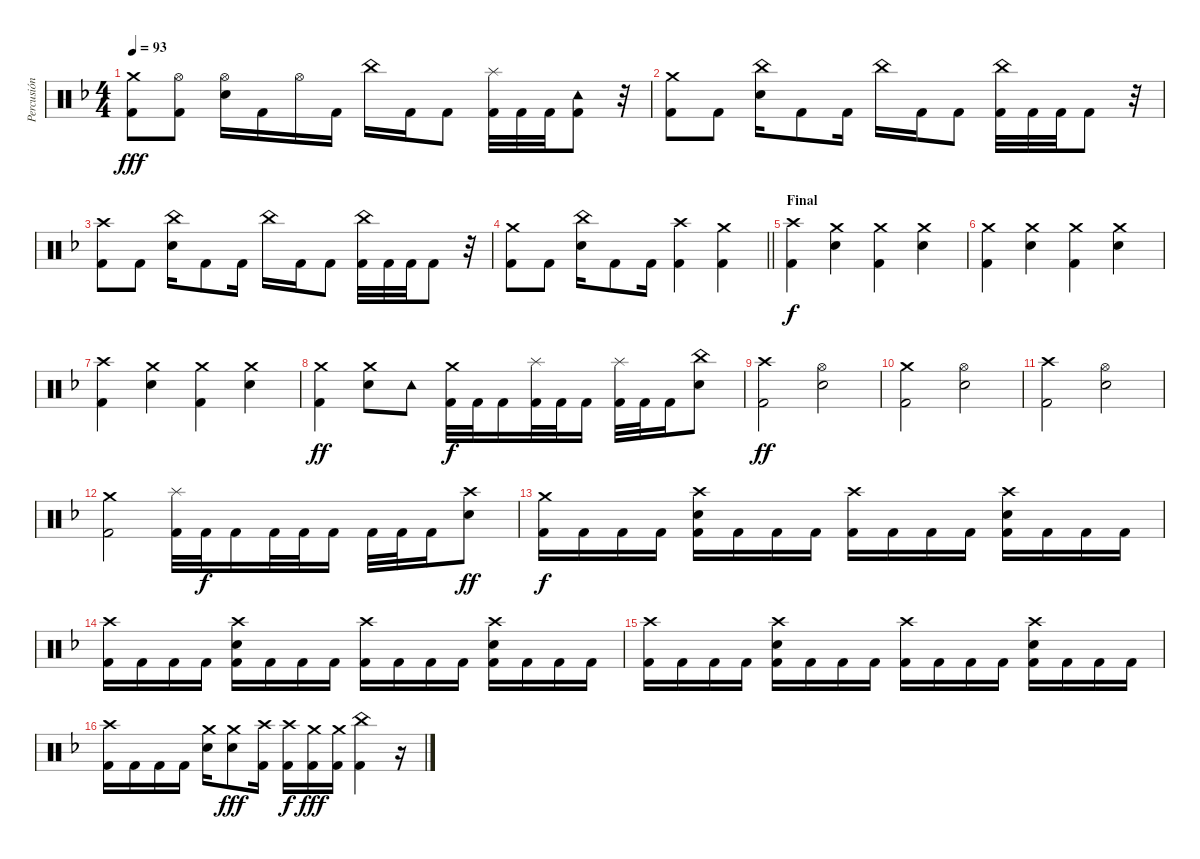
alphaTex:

\track ("Percusión" "Percusión") {instrument percussion}
\staff {score}
\articulation defaults
\ts (4 4)
\tempo 93
\clef neutral
\ks dminor
("Crash medium (hit)" "Kick (hit) 2").8{dy fff} ("Hi-Hat (open)" "Kick (hit) 2").8 ("Hi-Hat (open)" "Snare (hit) 2").16 "Kick (hit) 2".16 "Hi-Hat (open)".16 "Kick (hit) 2".16 "China (hit)".16 "Kick (hit) 2".16 "Kick (hit) 2".8 ("Splash (hit)" "Kick (hit) 2").32 "Kick (hit) 2".32 "Kick (hit) 2".32 ("Tambourine (hit)" "Kick (hit) 2").8 r.32 |
("Crash medium (hit)" "Kick (hit) 2").8 "Kick (hit) 2".8 ("China (hit)" "Snare (hit) 2").16 "Kick (hit) 2".8 "Kick (hit) 2".16 "China (hit)".16 "Kick (hit) 2".16 "Kick (hit) 2".8 ("China (hit)" "Kick (hit) 2").32 "Kick (hit) 2".32 "Kick (hit) 2".32 "Kick (hit) 2".8 r.32 |
("Crash high (hit)" "Kick (hit) 2").8 "Kick (hit) 2".8 ("China (hit)" "Snare (hit) 2").16 "Kick (hit) 2".8 "Kick (hit) 2".16 "China (hit)".16 "Kick (hit) 2".16 "Kick (hit) 2".8 ("China (hit)" "Kick (hit) 2").32 "Kick (hit) 2".32 "Kick (hit) 2".32 "Kick (hit) 2".8 r.32 |
\barLineRight lightlight
("Crash medium (hit)" "Kick (hit) 2").8 "Kick (hit) 2".8 ("China (hit)" "Snare (hit) 2").16 "Kick (hit) 2".8 "Kick (hit) 2".16 ("Crash high (hit)" "Kick (hit) 2").4 ("Crash medium (hit)" "Kick (hit) 2").4 |
\section ("" "Final")
("Crash high (hit)" "Kick (hit) 2").4{dy f} ("Crash medium (hit)" "Snare (hit) 2").4 ("Crash medium (hit)" "Kick (hit) 2").4 ("Crash medium (hit)" "Snare (hit) 2").4 |
("Crash medium (hit)" "Kick (hit) 2").4 ("Crash medium (hit)" "Snare (hit) 2").4 ("Crash medium (hit)" "Kick (hit) 2").4 ("Crash medium (hit)" "Snare (hit) 2").4 |
("Crash high (hit)" "Kick (hit) 2").4 ("Crash medium (hit)" "Snare (hit) 2").4 ("Crash medium (hit)" "Kick (hit) 2").4 ("Crash medium (hit)" "Snare (hit) 2").4 |
("Crash medium (hit)" "Kick (hit) 2").4{dy ff} ("Crash medium (hit)" "Snare (hit) 2").8 "Tambourine (hit)".8 ("Crash medium (hit)" "Kick (hit) 2").32{dy f} "Kick (hit) 2".32 "Kick (hit) 2".16 ("Splash (hit)" "Kick (hit) 2").32 "Kick (hit) 2".32 "Kick (hit) 2".16 ("Splash (hit)" "Kick (hit) 2").32 "Kick (hit) 2".32 "Kick (hit) 2".16 ("China (hit)" "Snare (hit) 2").8 |
("Crash high (hit)" "Kick (hit) 2").2{dy ff} ("Hi-Hat (open)" "Snare (hit) 2").2 |
("Crash medium (hit)" "Kick (hit) 2").2 ("Hi-Hat (open)" "Snare (hit) 2").2 |
("Crash high (hit)" "Kick (hit) 2").2 ("Hi-Hat (open)" "Snare (hit) 2").2 |
("Crash medium (hit)" "Kick (hit) 2").2 ("Splash (hit)" "Kick (hit) 2").32 "Kick (hit) 2".32{dy f} "Kick (hit) 2".16 "Kick (hit) 2".32 "Kick (hit) 2".32 "Kick (hit) 2".16 "Kick (hit) 2".32 "Kick (hit) 2".32 "Kick (hit) 2".16 ("Crash high (hit)" "Snare (hit) 2").8{dy ff} |
("Crash medium (hit)" "Kick (hit) 2").16{dy f} "Kick (hit) 2".16 "Kick (hit) 2".16 "Kick (hit) 2".16 ("Crash high (hit)" "Snare (hit) 2" "Kick (hit) 2").16 "Kick (hit) 2".16 "Kick (hit) 2".16 "Kick (hit) 2".16 ("Crash high (hit)" "Kick (hit) 2").16 "Kick (hit) 2".16 "Kick (hit) 2".16 "Kick (hit) 2".16 ("Crash high (hit)" "Snare (hit) 2" "Kick (hit) 2").16 "Kick (hit) 2".16 "Kick (hit) 2".16 "Kick (hit) 2".16 |
("Crash high (hit)" "Kick (hit) 2").16 "Kick (hit) 2".16 "Kick (hit) 2".16 "Kick (hit) 2".16 ("Crash high (hit)" "Snare (hit) 2" "Kick (hit) 2").16 "Kick (hit) 2".16 "Kick (hit) 2".16 "Kick (hit) 2".16 ("Crash high (hit)" "Kick (hit) 2").16 "Kick (hit) 2".16 "Kick (hit) 2".16 "Kick (hit) 2".16 ("Crash high (hit)" "Snare (hit) 2" "Kick (hit) 2").16 "Kick (hit) 2".16 "Kick (hit) 2".16 "Kick (hit) 2".16 |
("Crash high (hit)" "Kick (hit) 2").16 "Kick (hit) 2".16 "Kick (hit) 2".16 "Kick (hit) 2".16 ("Crash high (hit)" "Snare (hit) 2" "Kick (hit) 2").16 "Kick (hit) 2".16 "Kick (hit) 2".16 "Kick (hit) 2".16 ("Crash high (hit)" "Kick (hit) 2").16 "Kick (hit) 2".16 "Kick (hit) 2".16 "Kick (hit) 2".16 ("Crash high (hit)" "Snare (hit) 2" "Kick (hit) 2").16 "Kick (hit) 2".16 "Kick (hit) 2".16 "Kick (hit) 2".16 |
("Crash high (hit)" "Kick (hit) 2").16 "Kick (hit) 2".16 "Kick (hit) 2".16 "Kick (hit) 2".16 ("Crash medium (hit)" "Snare (hit) 2").16 ("Crash medium (hit)" "Snare (hit) 2").8{dy fff} ("Crash high (hit)" "Kick (hit) 2").16 ("Crash high (hit)" "Kick (hit) 2").16{dy f} ("Crash medium (hit)" "Kick (hit) 2").16{dy fff} ("Crash medium (hit)" "Kick (hit) 2").16 ("China (hit)" "Kick (hit) 2").4 r.16
